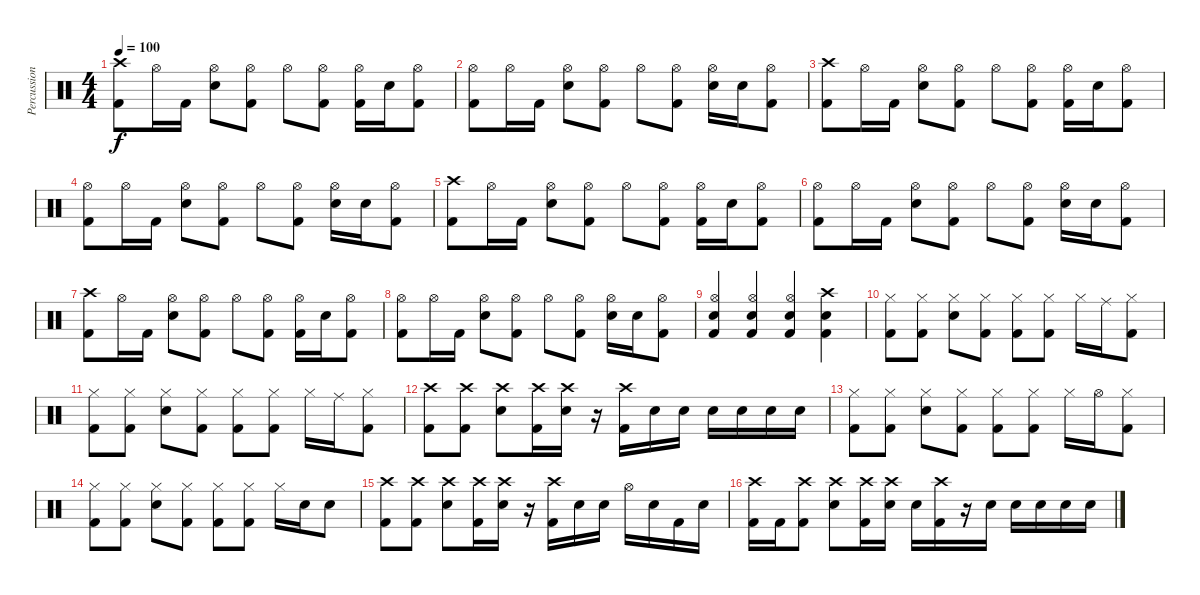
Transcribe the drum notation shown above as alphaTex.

\track ("Percussions" "Percussion") {instrument percussion}
\staff {score}
\articulation defaults
\ts (4 4)
\tempo 100
\clef neutral
\ks c
("Crash high (hit)" "Kick (hit) 2").8{dy f} "Hi-Hat (open)".16 "Kick (hit) 2".16 ("Hi-Hat (open)" "Snare (hit) 2").8 ("Hi-Hat (open)" "Kick (hit) 2").8 "Hi-Hat (open)".8 ("Hi-Hat (open)" "Kick (hit) 2").8 ("Hi-Hat (open)" "Kick (hit) 2").16 "Snare (hit) 2".16 ("Hi-Hat (open)" "Kick (hit) 2").8 |
("Hi-Hat (open)" "Kick (hit) 2").8 "Hi-Hat (open)".16 "Kick (hit) 2".16 ("Hi-Hat (open)" "Snare (hit) 2").8 ("Hi-Hat (open)" "Kick (hit) 2").8 "Hi-Hat (open)".8 ("Hi-Hat (open)" "Kick (hit) 2").8 ("Hi-Hat (open)" "Snare (hit) 2").16 "Snare (hit) 2".16 ("Hi-Hat (open)" "Kick (hit) 2").8 |
("Crash high (hit)" "Kick (hit) 2").8 "Hi-Hat (open)".16 "Kick (hit) 2".16 ("Hi-Hat (open)" "Snare (hit) 2").8 ("Hi-Hat (open)" "Kick (hit) 2").8 "Hi-Hat (open)".8 ("Hi-Hat (open)" "Kick (hit) 2").8 ("Hi-Hat (open)" "Kick (hit) 2").16 "Snare (hit) 2".16 ("Hi-Hat (open)" "Kick (hit) 2").8 |
("Hi-Hat (open)" "Kick (hit) 2").8 "Hi-Hat (open)".16 "Kick (hit) 2".16 ("Hi-Hat (open)" "Snare (hit) 2").8 ("Hi-Hat (open)" "Kick (hit) 2").8 "Hi-Hat (open)".8 ("Hi-Hat (open)" "Kick (hit) 2").8 ("Hi-Hat (open)" "Snare (hit) 2").16 "Snare (hit) 2".16 ("Hi-Hat (open)" "Kick (hit) 2").8 |
("Crash high (hit)" "Kick (hit) 2").8 "Hi-Hat (open)".16 "Kick (hit) 2".16 ("Hi-Hat (open)" "Snare (hit) 2").8 ("Hi-Hat (open)" "Kick (hit) 2").8 "Hi-Hat (open)".8 ("Hi-Hat (open)" "Kick (hit) 2").8 ("Hi-Hat (open)" "Kick (hit) 2").16 "Snare (hit) 2".16 ("Hi-Hat (open)" "Kick (hit) 2").8 |
("Hi-Hat (open)" "Kick (hit) 2").8 "Hi-Hat (open)".16 "Kick (hit) 2".16 ("Hi-Hat (open)" "Snare (hit) 2").8 ("Hi-Hat (open)" "Kick (hit) 2").8 "Hi-Hat (open)".8 ("Hi-Hat (open)" "Kick (hit) 2").8 ("Hi-Hat (open)" "Snare (hit) 2").16 "Snare (hit) 2".16 ("Hi-Hat (open)" "Kick (hit) 2").8 |
("Crash high (hit)" "Kick (hit) 2").8 "Hi-Hat (open)".16 "Kick (hit) 2".16 ("Hi-Hat (open)" "Snare (hit) 2").8 ("Hi-Hat (open)" "Kick (hit) 2").8 "Hi-Hat (open)".8 ("Hi-Hat (open)" "Kick (hit) 2").8 ("Hi-Hat (open)" "Kick (hit) 2").16 "Snare (hit) 2".16 ("Hi-Hat (open)" "Kick (hit) 2").8 |
("Hi-Hat (open)" "Kick (hit) 2").8 "Hi-Hat (open)".16 "Kick (hit) 2".16 ("Hi-Hat (open)" "Snare (hit) 2").8 ("Hi-Hat (open)" "Kick (hit) 2").8 "Hi-Hat (open)".8 ("Hi-Hat (open)" "Kick (hit) 2").8 ("Hi-Hat (open)" "Snare (hit) 2").16 "Snare (hit) 2".16 ("Hi-Hat (open)" "Kick (hit) 2").8 |
("Hi-Hat (open)" "Snare (hit) 2" "Kick (hit) 2").4 ("Hi-Hat (open)" "Snare (hit) 2" "Kick (hit) 2").4 ("Hi-Hat (open)" "Snare (hit) 2" "Kick (hit) 2").4 ("Crash high (hit)" "Snare (hit) 2" "Kick (hit) 2").4 |
("Hi-Hat (closed)" "Kick (hit) 2").8 ("Hi-Hat (closed)" "Kick (hit) 2").8 ("Hi-Hat (closed)" "Snare (hit) 2").8 ("Hi-Hat (closed)" "Kick (hit) 2").8 ("Hi-Hat (closed)" "Kick (hit) 2").8 ("Hi-Hat (closed)" "Kick (hit) 2").8 "Hi-Hat (closed)".16 "Ride (middle)".16 ("Hi-Hat (closed)" "Kick (hit) 2").8 |
("Hi-Hat (closed)" "Kick (hit) 2").8 ("Hi-Hat (closed)" "Kick (hit) 2").8 ("Hi-Hat (closed)" "Snare (hit) 2").8 ("Hi-Hat (closed)" "Kick (hit) 2").8 ("Hi-Hat (closed)" "Kick (hit) 2").8 ("Hi-Hat (closed)" "Kick (hit) 2").8 "Hi-Hat (closed)".16 "Ride (middle)".16 ("Hi-Hat (closed)" "Kick (hit) 2").8 |
("Crash high (hit)" "Kick (hit) 2").8 ("Crash high (hit)" "Kick (hit) 2").8 ("Crash high (hit)" "Snare (hit) 2").8 ("Crash high (hit)" "Kick (hit) 2").16 ("Crash high (hit)" "Snare (hit) 2").16 r.16 ("Crash high (hit)" "Kick (hit) 2").16 "Snare (hit) 2".16 "Snare (hit) 2".16 "Snare (hit) 2".16 "Snare (hit) 2".16 "Snare (hit) 2".16 "Snare (hit) 2".16 |
("Hi-Hat (closed)" "Kick (hit) 2").8 ("Hi-Hat (closed)" "Kick (hit) 2").8 ("Hi-Hat (closed)" "Snare (hit) 2").8 ("Hi-Hat (closed)" "Kick (hit) 2").8 ("Hi-Hat (closed)" "Kick (hit) 2").8 ("Hi-Hat (closed)" "Kick (hit) 2").8 "Hi-Hat (closed)".16 "Hi-Hat (open)".16 ("Hi-Hat (closed)" "Kick (hit) 2").8 |
("Hi-Hat (closed)" "Kick (hit) 2").8 ("Hi-Hat (closed)" "Kick (hit) 2").8 ("Hi-Hat (closed)" "Snare (hit) 2").8 ("Hi-Hat (closed)" "Kick (hit) 2").8 ("Hi-Hat (closed)" "Kick (hit) 2").8 ("Hi-Hat (closed)" "Kick (hit) 2").8 "Hi-Hat (closed)".16 "Snare (hit) 2".16 "Snare (hit) 2".8 |
("Crash high (hit)" "Kick (hit) 2").8 ("Crash high (hit)" "Kick (hit) 2").8 ("Crash high (hit)" "Snare (hit) 2").8 ("Crash high (hit)" "Kick (hit) 2").16 ("Crash high (hit)" "Snare (hit) 2").16 r.16 ("Crash high (hit)" "Kick (hit) 2").16 "Snare (hit) 2".16 "Snare (hit) 2".16 "Hi-Hat (open)".16 "Snare (hit) 2".16 "Kick (hit) 2".16 "Snare (hit) 2".16 |
("Crash high (hit)" "Kick (hit) 2").16 "Kick (hit) 2".16 ("Crash high (hit)" "Kick (hit) 2").8 ("Crash high (hit)" "Snare (hit) 2").8 ("Crash high (hit)" "Kick (hit) 2").16 ("Crash high (hit)" "Snare (hit) 2").16 "Snare (hit) 2".16 ("Crash high (hit)" "Kick (hit) 2").16 r.16 "Snare (hit) 2".16 "Snare (hit) 2".16 "Snare (hit) 2".16 "Snare (hit) 2".16 "Snare (hit) 2".16
